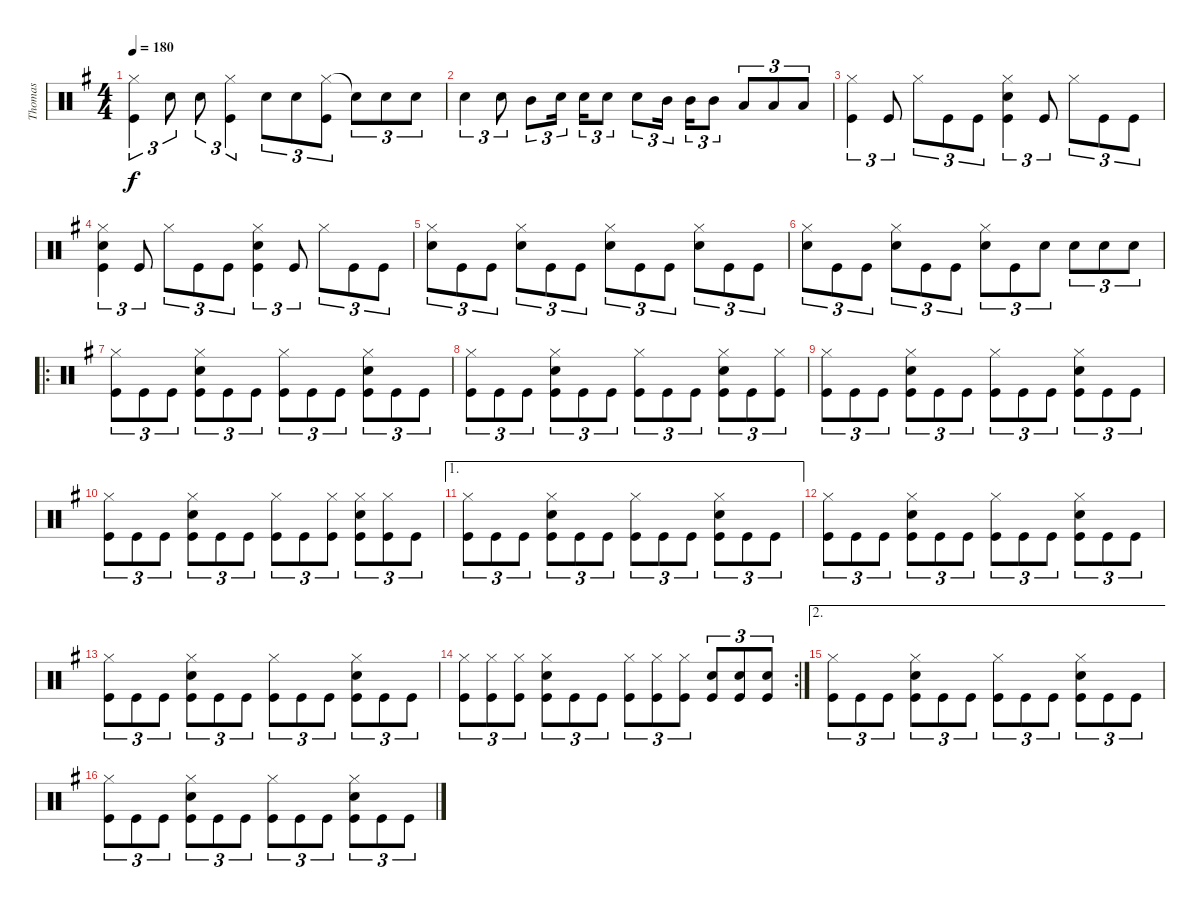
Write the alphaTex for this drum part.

\track ("Thomas" "Thomas") {instrument percussion}
\staff {score}
\articulation defaults
\ts (4 4)
\tempo 180
\clef neutral
\ks g
("Hi-Hat (closed)" "Kick (hit)").4{tu (3 2) dy f} "Snare (hit) 2".8{tu (3 2)} "Snare (hit) 2".8{tu (3 2)} ("Hi-Hat (closed)" "Kick (hit)").4{tu (3 2)} "Snare (hit) 2".8{tu (3 2)} "Snare (hit) 2".8{tu (3 2)} ("Hi-Hat (closed)" "Kick (hit)").8{tu (3 2)} "Snare (hit)"{t}.8{tu (3 2)} "Snare (hit) 2".8{tu (3 2)} "Snare (hit) 2".8{tu (3 2)} |
"Snare (hit) 2".4{tu (3 2)} "Snare (hit) 2".8{tu (3 2)} "Mid Tom (hit)".8{tu (3 2)} "Snare (hit) 2".16{tu (3 2) beam splitsecondary} "Snare (hit) 2".16{tu (3 2)} "Snare (hit) 2".8{tu (3 2)} "Snare (hit) 2".8{tu (3 2)} "Mid Tom (hit)".16{tu (3 2) beam splitsecondary} "Mid Tom (hit)".16{tu (3 2)} "Mid Tom (hit)".8{tu (3 2)} "Low Tom (hit)".8{tu (3 2)} "Low Tom (hit)".8{tu (3 2)} "Low Tom (hit)".8{tu (3 2)} |
("Hi-Hat (closed)" "Kick (hit)").4{tu (3 2)} "Kick (hit)".8{tu (3 2)} "Hi-Hat (closed)".8{tu (3 2)} "Kick (hit)".8{tu (3 2)} "Kick (hit)".8{tu (3 2)} ("Hi-Hat (closed)" "Snare (hit) 2" "Kick (hit)").4{tu (3 2)} "Kick (hit)".8{tu (3 2)} "Hi-Hat (closed)".8{tu (3 2)} "Kick (hit)".8{tu (3 2)} "Kick (hit)".8{tu (3 2)} |
("Hi-Hat (closed)" "Snare (hit) 2" "Kick (hit)").4{tu (3 2)} "Kick (hit)".8{tu (3 2)} "Hi-Hat (closed)".8{tu (3 2)} "Kick (hit)".8{tu (3 2)} "Kick (hit)".8{tu (3 2)} ("Hi-Hat (closed)" "Snare (hit) 2" "Kick (hit)").4{tu (3 2)} "Kick (hit)".8{tu (3 2)} "Hi-Hat (closed)".8{tu (3 2)} "Kick (hit)".8{tu (3 2)} "Kick (hit)".8{tu (3 2)} |
("Hi-Hat (closed)" "Snare (hit) 2").8{tu (3 2)} "Kick (hit)".8{tu (3 2)} "Kick (hit)".8{tu (3 2)} ("Hi-Hat (closed)" "Snare (hit) 2").8{tu (3 2)} "Kick (hit)".8{tu (3 2)} "Kick (hit)".8{tu (3 2)} ("Hi-Hat (closed)" "Snare (hit) 2").8{tu (3 2)} "Kick (hit)".8{tu (3 2)} "Kick (hit)".8{tu (3 2)} ("Hi-Hat (closed)" "Snare (hit) 2").8{tu (3 2)} "Kick (hit)".8{tu (3 2)} "Kick (hit)".8{tu (3 2)} |
("Hi-Hat (closed)" "Snare (hit) 2").8{tu (3 2)} "Kick (hit)".8{tu (3 2)} "Kick (hit)".8{tu (3 2)} ("Hi-Hat (closed)" "Snare (hit) 2").8{tu (3 2)} "Kick (hit)".8{tu (3 2)} "Kick (hit)".8{tu (3 2)} ("Hi-Hat (closed)" "Snare (hit) 2").8{tu (3 2)} "Kick (hit)".8{tu (3 2)} "Snare (hit) 2".8{tu (3 2)} "Snare (hit) 2".8{tu (3 2)} "Snare (hit) 2".8{tu (3 2)} "Snare (hit) 2".8{tu (3 2)} |
\ro
("Hi-Hat (closed)" "Kick (hit)").8{tu (3 2)} "Kick (hit)".8{tu (3 2)} "Kick (hit)".8{tu (3 2)} ("Hi-Hat (closed)" "Snare (hit) 2" "Kick (hit)").8{tu (3 2)} "Kick (hit)".8{tu (3 2)} "Kick (hit)".8{tu (3 2)} ("Hi-Hat (closed)" "Kick (hit)").8{tu (3 2)} "Kick (hit)".8{tu (3 2)} "Kick (hit)".8{tu (3 2)} ("Hi-Hat (closed)" "Snare (hit) 2" "Kick (hit)").8{tu (3 2)} "Kick (hit)".8{tu (3 2)} "Kick (hit)".8{tu (3 2)} |
("Hi-Hat (closed)" "Kick (hit)").8{tu (3 2)} "Kick (hit)".8{tu (3 2)} "Kick (hit)".8{tu (3 2)} ("Hi-Hat (closed)" "Snare (hit) 2" "Kick (hit)").8{tu (3 2)} "Kick (hit)".8{tu (3 2)} "Kick (hit)".8{tu (3 2)} ("Hi-Hat (closed)" "Kick (hit)").8{tu (3 2)} "Kick (hit)".8{tu (3 2)} "Kick (hit)".8{tu (3 2)} ("Hi-Hat (closed)" "Snare (hit) 2" "Kick (hit)").8{tu (3 2)} "Kick (hit)".8{tu (3 2)} ("Hi-Hat (closed)" "Kick (hit)").8{tu (3 2)} |
("Hi-Hat (closed)" "Kick (hit)").8{tu (3 2)} "Kick (hit)".8{tu (3 2)} "Kick (hit)".8{tu (3 2)} ("Hi-Hat (closed)" "Snare (hit) 2" "Kick (hit)").8{tu (3 2)} "Kick (hit)".8{tu (3 2)} "Kick (hit)".8{tu (3 2)} ("Hi-Hat (closed)" "Kick (hit)").8{tu (3 2)} "Kick (hit)".8{tu (3 2)} "Kick (hit)".8{tu (3 2)} ("Hi-Hat (closed)" "Snare (hit) 2" "Kick (hit)").8{tu (3 2)} "Kick (hit)".8{tu (3 2)} "Kick (hit)".8{tu (3 2)} |
("Hi-Hat (closed)" "Kick (hit)").8{tu (3 2)} "Kick (hit)".8{tu (3 2)} "Kick (hit)".8{tu (3 2)} ("Hi-Hat (closed)" "Snare (hit) 2" "Kick (hit)").8{tu (3 2)} "Kick (hit)".8{tu (3 2)} "Kick (hit)".8{tu (3 2)} ("Hi-Hat (closed)" "Kick (hit)").8{tu (3 2)} "Kick (hit)".8{tu (3 2)} ("Hi-Hat (closed)" "Kick (hit)").8{tu (3 2)} ("Hi-Hat (closed)" "Snare (hit) 2" "Kick (hit)").8{tu (3 2)} ("Hi-Hat (closed)" "Kick (hit)").8{tu (3 2)} "Kick (hit)".8{tu (3 2)} |
\ae 1
("Hi-Hat (closed)" "Kick (hit)").8{tu (3 2)} "Kick (hit)".8{tu (3 2)} "Kick (hit)".8{tu (3 2)} ("Hi-Hat (closed)" "Snare (hit) 2" "Kick (hit)").8{tu (3 2)} "Kick (hit)".8{tu (3 2)} "Kick (hit)".8{tu (3 2)} ("Hi-Hat (closed)" "Kick (hit)").8{tu (3 2)} "Kick (hit)".8{tu (3 2)} "Kick (hit)".8{tu (3 2)} ("Hi-Hat (closed)" "Snare (hit) 2" "Kick (hit)").8{tu (3 2)} "Kick (hit)".8{tu (3 2)} "Kick (hit)".8{tu (3 2)} |
("Hi-Hat (closed)" "Kick (hit)").8{tu (3 2)} "Kick (hit)".8{tu (3 2)} "Kick (hit)".8{tu (3 2)} ("Hi-Hat (closed)" "Snare (hit) 2" "Kick (hit)").8{tu (3 2)} "Kick (hit)".8{tu (3 2)} "Kick (hit)".8{tu (3 2)} ("Hi-Hat (closed)" "Kick (hit)").8{tu (3 2)} "Kick (hit)".8{tu (3 2)} "Kick (hit)".8{tu (3 2)} ("Hi-Hat (closed)" "Snare (hit) 2" "Kick (hit)").8{tu (3 2)} "Kick (hit)".8{tu (3 2)} "Kick (hit)".8{tu (3 2)} |
("Hi-Hat (closed)" "Kick (hit)").8{tu (3 2)} "Kick (hit)".8{tu (3 2)} "Kick (hit)".8{tu (3 2)} ("Hi-Hat (closed)" "Snare (hit) 2" "Kick (hit)").8{tu (3 2)} "Kick (hit)".8{tu (3 2)} "Kick (hit)".8{tu (3 2)} ("Hi-Hat (closed)" "Kick (hit)").8{tu (3 2)} "Kick (hit)".8{tu (3 2)} "Kick (hit)".8{tu (3 2)} ("Hi-Hat (closed)" "Snare (hit) 2" "Kick (hit)").8{tu (3 2)} "Kick (hit)".8{tu (3 2)} "Kick (hit)".8{tu (3 2)} |
\rc 2
("Hi-Hat (closed)" "Kick (hit)").8{tu (3 2)} ("Hi-Hat (closed)" "Kick (hit)").8{tu (3 2)} ("Hi-Hat (closed)" "Kick (hit)").8{tu (3 2)} ("Hi-Hat (closed)" "Snare (hit) 2" "Kick (hit)").8{tu (3 2)} "Kick (hit)".8{tu (3 2)} "Kick (hit)".8{tu (3 2)} ("Hi-Hat (closed)" "Kick (hit)").8{tu (3 2)} ("Hi-Hat (closed)" "Kick (hit)").8{tu (3 2)} ("Hi-Hat (closed)" "Kick (hit)").8{tu (3 2)} ("Snare (hit) 2" "Kick (hit)").8{tu (3 2)} ("Snare (hit) 2" "Kick (hit)").8{tu (3 2)} ("Snare (hit) 2" "Kick (hit)").8{tu (3 2)} |
\ae 2
("Hi-Hat (closed)" "Kick (hit)").8{tu (3 2)} "Kick (hit)".8{tu (3 2)} "Kick (hit)".8{tu (3 2)} ("Hi-Hat (closed)" "Snare (hit) 2" "Kick (hit)").8{tu (3 2)} "Kick (hit)".8{tu (3 2)} "Kick (hit)".8{tu (3 2)} ("Hi-Hat (closed)" "Kick (hit)").8{tu (3 2)} "Kick (hit)".8{tu (3 2)} "Kick (hit)".8{tu (3 2)} ("Hi-Hat (closed)" "Snare (hit) 2" "Kick (hit)").8{tu (3 2)} "Kick (hit)".8{tu (3 2)} "Kick (hit)".8{tu (3 2)} |
("Hi-Hat (closed)" "Kick (hit)").8{tu (3 2)} "Kick (hit)".8{tu (3 2)} "Kick (hit)".8{tu (3 2)} ("Hi-Hat (closed)" "Snare (hit) 2" "Kick (hit)").8{tu (3 2)} "Kick (hit)".8{tu (3 2)} "Kick (hit)".8{tu (3 2)} ("Hi-Hat (closed)" "Kick (hit)").8{tu (3 2)} "Kick (hit)".8{tu (3 2)} "Kick (hit)".8{tu (3 2)} ("Hi-Hat (closed)" "Snare (hit) 2" "Kick (hit)").8{tu (3 2)} "Kick (hit)".8{tu (3 2)} "Kick (hit)".8{tu (3 2)}
